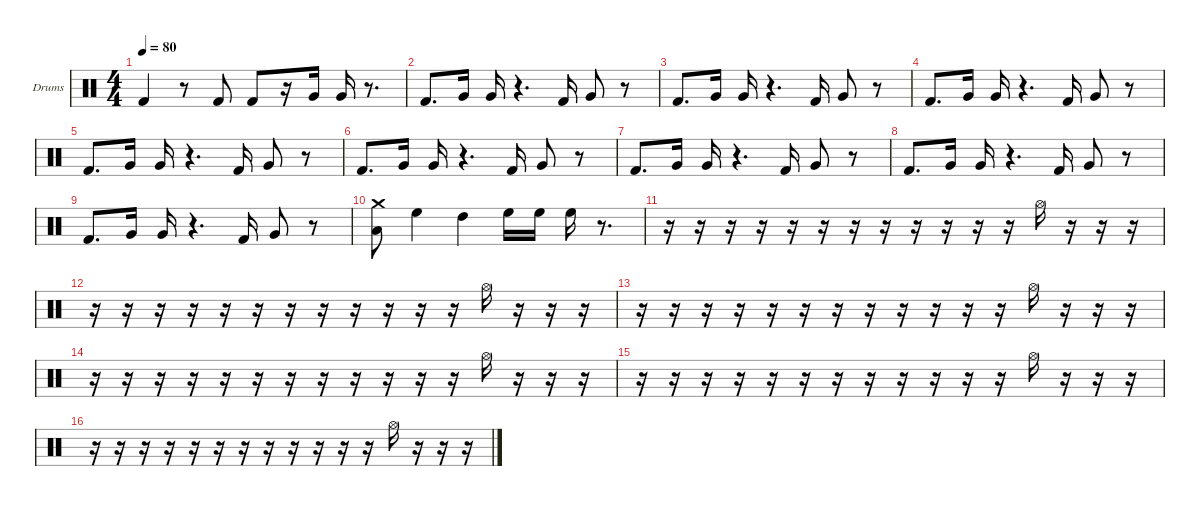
\hideDynamics
\bracketExtendMode nobrackets
\firstSystemTrackNameOrientation horizontal
\otherSystemsTrackNameOrientation horizontal
\track ("Drumkit" "Drums") {instrument percussion}
\staff {score}
\articulation defaults
\ts (4 4)
\tempo 80
\clef neutral
\ks c "Kick (hit) 2".4{dy f}
r.8 "Kick (hit) 2".8 "Kick (hit) 2".8 r.16 "Very Low Tom (hit)".16 "Very Low Tom (hit)".16 r.8{d} |
"Kick (hit) 2".8{d} "Very Low Tom (hit)".16 "Very Low Tom (hit)".16 r.4{d} "Kick (hit) 2".16 "Very Low Tom (hit)".8 r.8 |
"Kick (hit) 2".8{d} "Very Low Tom (hit)".16 "Very Low Tom (hit)".16 r.4{d} "Kick (hit) 2".16 "Very Low Tom (hit)".8 r.8 |
"Kick (hit) 2".8{d} "Very Low Tom (hit)".16 "Very Low Tom (hit)".16 r.4{d} "Kick (hit) 2".16 "Very Low Tom (hit)".8 r.8 |
"Kick (hit) 2".8{d} "Very Low Tom (hit)".16 "Very Low Tom (hit)".16 r.4{d} "Kick (hit) 2".16 "Very Low Tom (hit)".8 r.8 |
"Kick (hit) 2".8{d} "Very Low Tom (hit)".16 "Very Low Tom (hit)".16 r.4{d} "Kick (hit) 2".16 "Very Low Tom (hit)".8 r.8 |
"Kick (hit) 2".8{d} "Very Low Tom (hit)".16 "Very Low Tom (hit)".16 r.4{d} "Kick (hit) 2".16 "Very Low Tom (hit)".8 r.8 |
"Kick (hit) 2".8{d} "Very Low Tom (hit)".16 "Very Low Tom (hit)".16 r.4{d} "Kick (hit) 2".16 "Very Low Tom (hit)".8 r.8 |
"Kick (hit) 2".8{d} "Very Low Tom (hit)".16 "Very Low Tom (hit)".16 r.4{d} "Kick (hit) 2".16 "Very Low Tom (hit)".8 r.8 |
("Crash medium (hit)" "Low Tom (hit)").8 "High Floor Tom (hit)".4 "High Tom (hit)".4 "High Floor Tom (hit)".16 "High Floor Tom (hit)".16 "High Floor Tom (hit)".16 r.8{d} |
r.16 r.16 r.16 r.16 r.16 r.16 r.16 r.16 r.16 r.16 r.16 r.16 "Hi-Hat (open)".16 r.16 r.16 r.16 |
r.16 r.16 r.16 r.16 r.16 r.16 r.16 r.16 r.16 r.16 r.16 r.16 "Hi-Hat (open)".16 r.16 r.16 r.16 |
r.16 r.16 r.16 r.16 r.16 r.16 r.16 r.16 r.16 r.16 r.16 r.16 "Hi-Hat (open)".16 r.16 r.16 r.16 |
r.16 r.16 r.16 r.16 r.16 r.16 r.16 r.16 r.16 r.16 r.16 r.16 "Hi-Hat (open)".16 r.16 r.16 r.16 |
r.16 r.16 r.16 r.16 r.16 r.16 r.16 r.16 r.16 r.16 r.16 r.16 "Hi-Hat (open)".16 r.16 r.16 r.16 |
r.16 r.16 r.16 r.16 r.16 r.16 r.16 r.16 r.16 r.16 r.16 r.16 "Hi-Hat (open)".16 r.16 r.16 r.16
